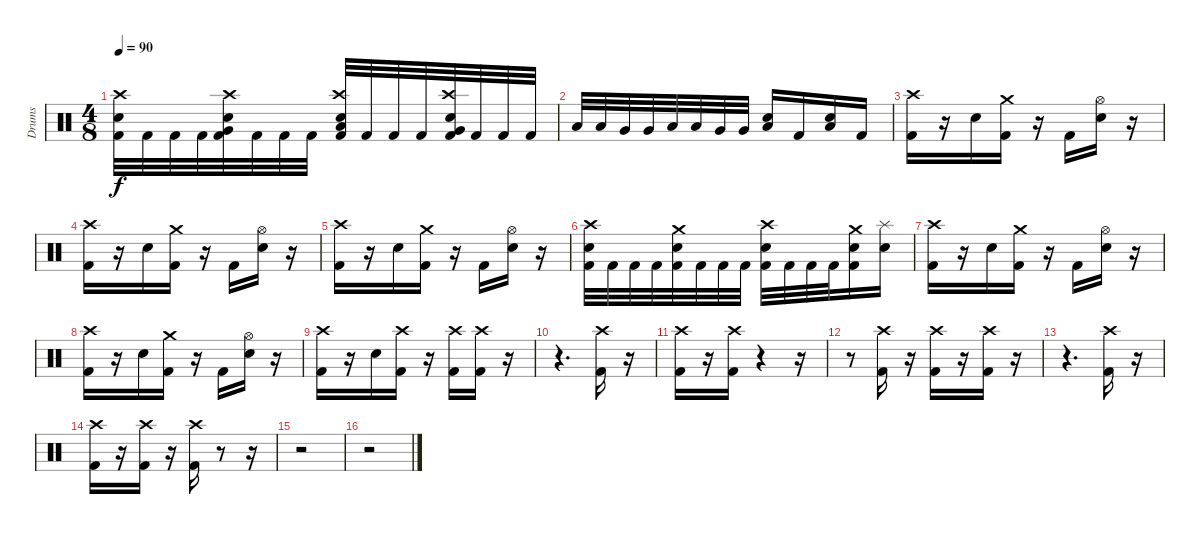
\track ("Drums" "Drums") {instrument percussion}
\staff {score}
\articulation defaults
\ts (4 8)
\tempo 90
\clef neutral
\ks c
("Kick (hit) 2" "Electric Snare (hit)" "Crash high (hit)").32{dy f} "Kick (hit) 2".32 "Kick (hit) 2".32 "Kick (hit) 2".32 ("Electric Snare (hit)" "Very Low Tom (hit)" "Kick (hit) 2" "Crash high (hit)").32 "Kick (hit) 2".32 "Kick (hit) 2".32 "Kick (hit) 2".32 ("Electric Snare (hit)" "Low Floor Tom (hit)" "Kick (hit) 2" "Crash high (hit)").32 "Kick (hit) 2".32 "Kick (hit) 2".32 "Kick (hit) 2".32 ("Electric Snare (hit)" "Very Low Tom (hit)" "Kick (hit) 2" "Crash high (hit)").32 "Kick (hit) 2".32 "Kick (hit) 2".32 "Kick (hit) 2".32 |
"Low Tom (hit)".32 "Low Tom (hit)".32 "Very Low Tom (hit)".32 "Very Low Tom (hit)".32 "Low Tom (hit)".32 "Low Tom (hit)".32 "Very Low Tom (hit)".32 "Very Low Tom (hit)".32 ("Electric Snare (hit)" "Low Floor Tom (hit)").16 "Kick (hit) 2".16 ("Electric Snare (hit)" "Low Floor Tom (hit)").16 "Kick (hit) 2".16 |
("Kick (hit) 2" "Crash high (hit)").16 r.16 "Electric Snare (hit)".16 ("Kick (hit) 2" "Crash medium (hit)").16 r.16 "Kick (hit) 2".16 ("Electric Snare (hit)" "Hi-Hat (open)").16 r.16 |
("Kick (hit) 2" "Crash high (hit)").16 r.16 "Electric Snare (hit)".16 ("Kick (hit) 2" "Crash medium (hit)").16 r.16 "Kick (hit) 2".16 ("Electric Snare (hit)" "Hi-Hat (open)").16 r.16 |
("Kick (hit) 2" "Crash high (hit)").16 r.16 "Electric Snare (hit)".16 ("Kick (hit) 2" "Crash medium (hit)").16 r.16 "Kick (hit) 2".16 ("Electric Snare (hit)" "Hi-Hat (open)").16 r.16 |
("Kick (hit) 2" "Crash high (hit)" "Electric Snare (hit)").32 "Kick (hit) 2".32 "Kick (hit) 2".32 "Kick (hit) 2".32 ("Kick (hit) 2" "Crash medium (hit)" "Electric Snare (hit)").32 "Kick (hit) 2".32 "Kick (hit) 2".32 "Kick (hit) 2".32 ("Kick (hit) 2" "Crash high (hit)" "Electric Snare (hit)").32 "Kick (hit) 2".32 "Kick (hit) 2".32 "Kick (hit) 2".32 ("Kick (hit) 2" "Crash medium (hit)" "Electric Snare (hit)").16 ("Electric Snare (hit)" "Splash (hit)").16 |
("Kick (hit) 2" "Crash high (hit)").16 r.16 "Electric Snare (hit)".16 ("Kick (hit) 2" "Crash medium (hit)").16 r.16 "Kick (hit) 2".16 ("Electric Snare (hit)" "Hi-Hat (open)").16 r.16 |
("Kick (hit) 2" "Crash high (hit)").16 r.16 "Electric Snare (hit)".16 ("Kick (hit) 2" "Crash medium (hit)").16 r.16 "Kick (hit) 2".16 ("Electric Snare (hit)" "Hi-Hat (open)").16 r.16 |
("Kick (hit) 2" "Crash high (hit)").16 r.16 "Electric Snare (hit)".16 ("Kick (hit) 2" "Crash high (hit)").16 r.16 ("Kick (hit) 2" "Crash high (hit)").16 ("Kick (hit) 2" "Crash high (hit)").16 r.16 |
r.4{d} ("Crash high (hit)" "Kick (hit) 2").16 r.16 |
("Kick (hit) 2" "Crash high (hit)").16 r.16 ("Crash high (hit)" "Kick (hit) 2").16 r.4 r.16 |
r.8 ("Kick (hit) 2" "Crash high (hit)").16 r.16 ("Kick (hit) 2" "Crash high (hit)").16 r.16 ("Crash high (hit)" "Kick (hit) 2").16 r.16 |
r.4{d} ("Crash high (hit)" "Kick (hit) 2").16 r.16 |
("Kick (hit) 2" "Crash high (hit)").16 r.16 ("Crash high (hit)" "Kick (hit) 2").16 r.16 ("Crash high (hit)" "Kick (hit) 2").16 r.8 r.16 |
r.2 |
r.2
